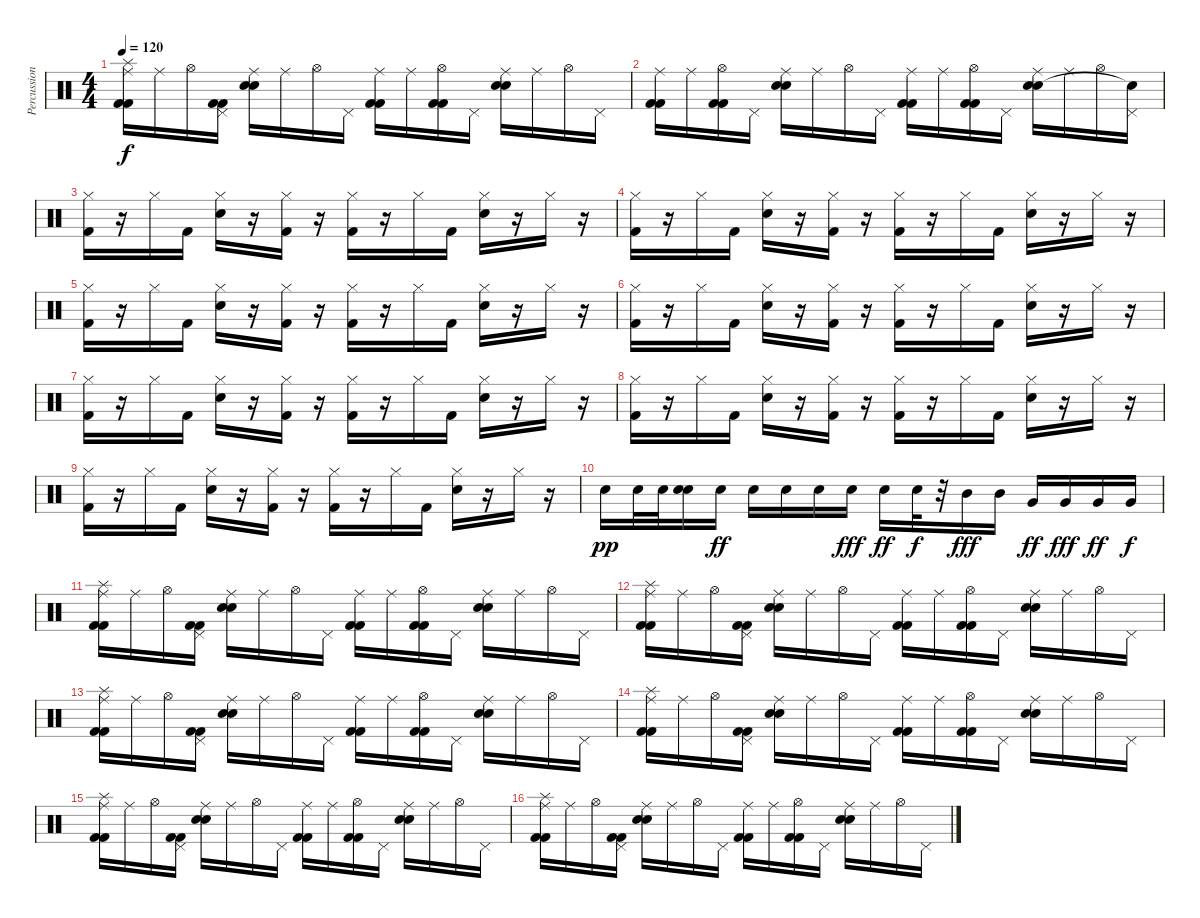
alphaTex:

\track ("Percussion" "Percussion") {instrument percussion}
\staff {score}
\articulation defaults
\ts (4 4)
\tempo 120
\clef neutral
\ks c
("Ride (middle)" "Splash (hit)" "Kick (hit) 2" "Kick (hit) 2").16{dy f} "Ride (middle)".16 "Hi-Hat (open)".16 ("Pedal Hi-Hat (hit)" "Kick (hit) 2" "Kick (hit) 2").16 ("Ride (middle)" "Electric Snare (hit)" "Electric Snare (hit)").16 "Ride (middle)".16 "Hi-Hat (open)".16 "Pedal Hi-Hat (hit)".16 ("Ride (middle)" "Kick (hit) 2" "Kick (hit) 2").16 "Ride (middle)".16 ("Hi-Hat (open)" "Kick (hit) 2" "Kick (hit) 2").16 "Pedal Hi-Hat (hit)".16 ("Ride (middle)" "Electric Snare (hit)" "Electric Snare (hit)").16 "Ride (middle)".16 "Hi-Hat (open)".16 "Pedal Hi-Hat (hit)".16 |
("Ride (middle)" "Kick (hit) 2" "Kick (hit) 2").16 "Ride (middle)".16 ("Hi-Hat (open)" "Kick (hit) 2" "Kick (hit) 2").16 "Pedal Hi-Hat (hit)".16 ("Ride (middle)" "Electric Snare (hit)" "Electric Snare (hit)").16 "Ride (middle)".16 "Hi-Hat (open)".16 "Pedal Hi-Hat (hit)".16 ("Ride (middle)" "Kick (hit) 2" "Kick (hit) 2").16 "Ride (middle)".16 ("Hi-Hat (open)" "Kick (hit) 2" "Kick (hit) 2").16 "Pedal Hi-Hat (hit)".16 ("Ride (middle)" "Electric Snare (hit)" "Electric Snare (hit)").16 "Ride (middle)".16 "Hi-Hat (open)".16 ("Pedal Hi-Hat (hit)" "Snare (hit)"{t}).16 |
("Kick (hit) 2" "Hi-Hat (closed)").16 r.16 "Hi-Hat (closed)".16 "Kick (hit) 2".16 ("Electric Snare (hit)" "Hi-Hat (closed)").16 r.16 ("Kick (hit) 2" "Hi-Hat (closed)").16 r.16 ("Kick (hit) 2" "Hi-Hat (closed)").16 r.16 "Hi-Hat (closed)".16 "Kick (hit) 2".16 ("Electric Snare (hit)" "Hi-Hat (closed)").16 r.16 "Hi-Hat (closed)".16 r.16 |
("Kick (hit) 2" "Hi-Hat (closed)").16 r.16 "Hi-Hat (closed)".16 "Kick (hit) 2".16 ("Electric Snare (hit)" "Hi-Hat (closed)").16 r.16 ("Kick (hit) 2" "Hi-Hat (closed)").16 r.16 ("Kick (hit) 2" "Hi-Hat (closed)").16 r.16 "Hi-Hat (closed)".16 "Kick (hit) 2".16 ("Electric Snare (hit)" "Hi-Hat (closed)").16 r.16 "Hi-Hat (closed)".16 r.16 |
("Kick (hit) 2" "Hi-Hat (closed)").16 r.16 "Hi-Hat (closed)".16 "Kick (hit) 2".16 ("Electric Snare (hit)" "Hi-Hat (closed)").16 r.16 ("Kick (hit) 2" "Hi-Hat (closed)").16 r.16 ("Kick (hit) 2" "Hi-Hat (closed)").16 r.16 "Hi-Hat (closed)".16 "Kick (hit) 2".16 ("Electric Snare (hit)" "Hi-Hat (closed)").16 r.16 "Hi-Hat (closed)".16 r.16 |
("Kick (hit) 2" "Hi-Hat (closed)").16 r.16 "Hi-Hat (closed)".16 "Kick (hit) 2".16 ("Electric Snare (hit)" "Hi-Hat (closed)").16 r.16 ("Kick (hit) 2" "Hi-Hat (closed)").16 r.16 ("Kick (hit) 2" "Hi-Hat (closed)").16 r.16 "Hi-Hat (closed)".16 "Kick (hit) 2".16 ("Electric Snare (hit)" "Hi-Hat (closed)").16 r.16 "Hi-Hat (closed)".16 r.16 |
("Kick (hit) 2" "Hi-Hat (closed)").16 r.16 "Hi-Hat (closed)".16 "Kick (hit) 2".16 ("Electric Snare (hit)" "Hi-Hat (closed)").16 r.16 ("Kick (hit) 2" "Hi-Hat (closed)").16 r.16 ("Kick (hit) 2" "Hi-Hat (closed)").16 r.16 "Hi-Hat (closed)".16 "Kick (hit) 2".16 ("Electric Snare (hit)" "Hi-Hat (closed)").16 r.16 "Hi-Hat (closed)".16 r.16 |
("Kick (hit) 2" "Hi-Hat (closed)").16 r.16 "Hi-Hat (closed)".16 "Kick (hit) 2".16 ("Electric Snare (hit)" "Hi-Hat (closed)").16 r.16 ("Kick (hit) 2" "Hi-Hat (closed)").16 r.16 ("Kick (hit) 2" "Hi-Hat (closed)").16 r.16 "Hi-Hat (closed)".16 "Kick (hit) 2".16 ("Electric Snare (hit)" "Hi-Hat (closed)").16 r.16 "Hi-Hat (closed)".16 r.16 |
("Kick (hit) 2" "Hi-Hat (closed)").16 r.16 "Hi-Hat (closed)".16 "Kick (hit) 2".16 ("Electric Snare (hit)" "Hi-Hat (closed)").16 r.16 ("Kick (hit) 2" "Hi-Hat (closed)").16 r.16 ("Kick (hit) 2" "Hi-Hat (closed)").16 r.16 "Hi-Hat (closed)".16 "Kick (hit) 2".16 ("Electric Snare (hit)" "Hi-Hat (closed)").16 r.16 "Hi-Hat (closed)".16 r.16 |
"Electric Snare (hit)".16{dy pp} "Electric Snare (hit)".32 "Electric Snare (hit)".32 ("Electric Snare (hit)" "Electric Snare (hit)").16 "Electric Snare (hit)".16{dy ff} "Electric Snare (hit)".16 "Electric Snare (hit)".16 "Electric Snare (hit)".16 "Electric Snare (hit)".16{dy fff} "Electric Snare (hit)".16{dy ff} "Electric Snare (hit)".32{dy f} r.32 "Mid Tom (hit)".16{dy fff} "Mid Tom (hit)".16 "Very Low Tom (hit)".16{dy ff} "Very Low Tom (hit)".16{dy fff} "Very Low Tom (hit)".16{dy ff} "Very Low Tom (hit)".16{dy f} |
("Ride (middle)" "Splash (hit)" "Kick (hit) 2" "Kick (hit) 2").16 "Ride (middle)".16 "Hi-Hat (open)".16 ("Pedal Hi-Hat (hit)" "Kick (hit) 2" "Kick (hit) 2").16 ("Ride (middle)" "Electric Snare (hit)" "Electric Snare (hit)").16 "Ride (middle)".16 "Hi-Hat (open)".16 "Pedal Hi-Hat (hit)".16 ("Ride (middle)" "Kick (hit) 2" "Kick (hit) 2").16 "Ride (middle)".16 ("Hi-Hat (open)" "Kick (hit) 2" "Kick (hit) 2").16 "Pedal Hi-Hat (hit)".16 ("Ride (middle)" "Electric Snare (hit)" "Electric Snare (hit)").16 "Ride (middle)".16 "Hi-Hat (open)".16 "Pedal Hi-Hat (hit)".16 |
("Ride (middle)" "Splash (hit)" "Kick (hit) 2" "Kick (hit) 2").16 "Ride (middle)".16 "Hi-Hat (open)".16 ("Pedal Hi-Hat (hit)" "Kick (hit) 2" "Kick (hit) 2").16 ("Ride (middle)" "Electric Snare (hit)" "Electric Snare (hit)").16 "Ride (middle)".16 "Hi-Hat (open)".16 "Pedal Hi-Hat (hit)".16 ("Ride (middle)" "Kick (hit) 2" "Kick (hit) 2").16 "Ride (middle)".16 ("Hi-Hat (open)" "Kick (hit) 2" "Kick (hit) 2").16 "Pedal Hi-Hat (hit)".16 ("Ride (middle)" "Electric Snare (hit)" "Electric Snare (hit)").16 "Ride (middle)".16 "Hi-Hat (open)".16 "Pedal Hi-Hat (hit)".16 |
("Ride (middle)" "Splash (hit)" "Kick (hit) 2" "Kick (hit) 2").16 "Ride (middle)".16 "Hi-Hat (open)".16 ("Pedal Hi-Hat (hit)" "Kick (hit) 2" "Kick (hit) 2").16 ("Ride (middle)" "Electric Snare (hit)" "Electric Snare (hit)").16 "Ride (middle)".16 "Hi-Hat (open)".16 "Pedal Hi-Hat (hit)".16 ("Ride (middle)" "Kick (hit) 2" "Kick (hit) 2").16 "Ride (middle)".16 ("Hi-Hat (open)" "Kick (hit) 2" "Kick (hit) 2").16 "Pedal Hi-Hat (hit)".16 ("Ride (middle)" "Electric Snare (hit)" "Electric Snare (hit)").16 "Ride (middle)".16 "Hi-Hat (open)".16 "Pedal Hi-Hat (hit)".16 |
("Ride (middle)" "Splash (hit)" "Kick (hit) 2" "Kick (hit) 2").16 "Ride (middle)".16 "Hi-Hat (open)".16 ("Pedal Hi-Hat (hit)" "Kick (hit) 2" "Kick (hit) 2").16 ("Ride (middle)" "Electric Snare (hit)" "Electric Snare (hit)").16 "Ride (middle)".16 "Hi-Hat (open)".16 "Pedal Hi-Hat (hit)".16 ("Ride (middle)" "Kick (hit) 2" "Kick (hit) 2").16 "Ride (middle)".16 ("Hi-Hat (open)" "Kick (hit) 2" "Kick (hit) 2").16 "Pedal Hi-Hat (hit)".16 ("Ride (middle)" "Electric Snare (hit)" "Electric Snare (hit)").16 "Ride (middle)".16 "Hi-Hat (open)".16 "Pedal Hi-Hat (hit)".16 |
("Ride (middle)" "Splash (hit)" "Kick (hit) 2" "Kick (hit) 2").16 "Ride (middle)".16 "Hi-Hat (open)".16 ("Pedal Hi-Hat (hit)" "Kick (hit) 2" "Kick (hit) 2").16 ("Ride (middle)" "Electric Snare (hit)" "Electric Snare (hit)").16 "Ride (middle)".16 "Hi-Hat (open)".16 "Pedal Hi-Hat (hit)".16 ("Ride (middle)" "Kick (hit) 2" "Kick (hit) 2").16 "Ride (middle)".16 ("Hi-Hat (open)" "Kick (hit) 2" "Kick (hit) 2").16 "Pedal Hi-Hat (hit)".16 ("Ride (middle)" "Electric Snare (hit)" "Electric Snare (hit)").16 "Ride (middle)".16 "Hi-Hat (open)".16 "Pedal Hi-Hat (hit)".16 |
("Ride (middle)" "Splash (hit)" "Kick (hit) 2" "Kick (hit) 2").16 "Ride (middle)".16 "Hi-Hat (open)".16 ("Pedal Hi-Hat (hit)" "Kick (hit) 2" "Kick (hit) 2").16 ("Ride (middle)" "Electric Snare (hit)" "Electric Snare (hit)").16 "Ride (middle)".16 "Hi-Hat (open)".16 "Pedal Hi-Hat (hit)".16 ("Ride (middle)" "Kick (hit) 2" "Kick (hit) 2").16 "Ride (middle)".16 ("Hi-Hat (open)" "Kick (hit) 2" "Kick (hit) 2").16 "Pedal Hi-Hat (hit)".16 ("Ride (middle)" "Electric Snare (hit)" "Electric Snare (hit)").16 "Ride (middle)".16 "Hi-Hat (open)".16 "Pedal Hi-Hat (hit)".16
